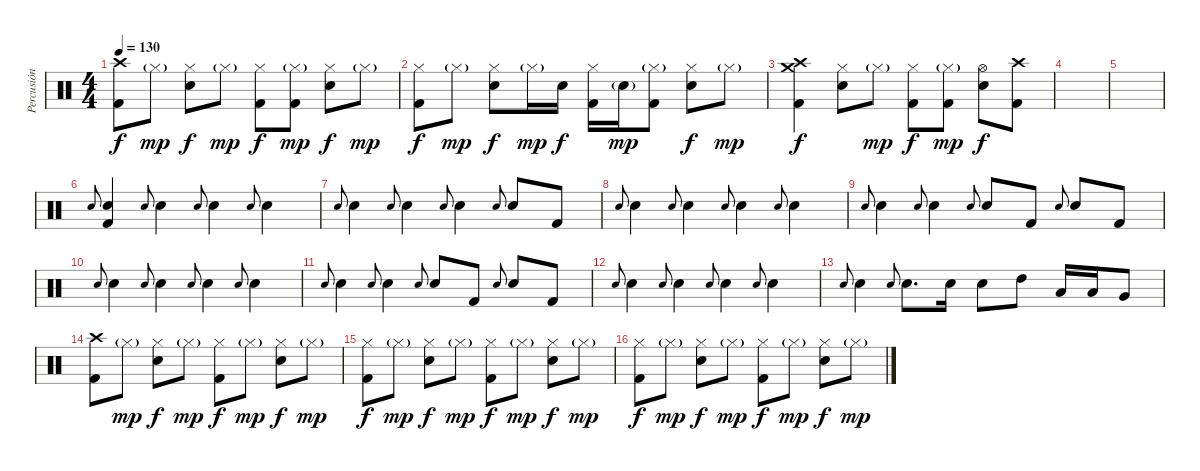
\track ("Percusión" "Percusión") {instrument percussion}
\staff {score}
\articulation defaults
\ts (4 4)
\tempo 130
\clef neutral
\ks c
("Crash high (hit)" "Kick (hit) 2").8{dy f} "Hi-Hat (closed)"{g}.8{dy mp} ("Hi-Hat (closed)" "Snare (hit) 2").8{dy f} "Hi-Hat (closed)"{g}.8{dy mp} ("Hi-Hat (closed)" "Kick (hit) 2").8{dy f} ("Hi-Hat (closed)"{g} "Kick (hit) 2").8{dy mp} ("Hi-Hat (closed)" "Snare (hit) 2").8{dy f} "Hi-Hat (closed)"{g}.8{dy mp} |
("Hi-Hat (closed)" "Kick (hit) 2").8{dy f} "Hi-Hat (closed)"{g}.8{dy mp} ("Hi-Hat (closed)" "Snare (hit) 2").8{dy f} "Hi-Hat (closed)"{g}.16{dy mp} "Snare (hit) 2".16{dy f} ("Hi-Hat (closed)" "Kick (hit) 2").16 "Snare (hit) 2"{g}.16{dy mp} ("Hi-Hat (closed)"{g} "Kick (hit) 2").8 ("Hi-Hat (closed)" "Snare (hit) 2").8{dy f} "Hi-Hat (closed)"{g}.8{dy mp} |
("Crash high (hit)" "Crash medium (hit)" "Kick (hit) 2").4{dy f} ("Hi-Hat (closed)" "Snare (hit) 2").8 "Hi-Hat (closed)"{g}.8{dy mp} ("Hi-Hat (closed)" "Kick (hit) 2").8{dy f} ("Hi-Hat (closed)"{g} "Kick (hit) 2").8{dy mp} ("Hi-Hat (open)" "Snare (hit) 2").8{dy f} ("Crash high (hit)" "Kick (hit) 2").8 |
|
|
"Snare (hit) 2".8{gr onbeat} ("Snare (hit) 2" "Kick (hit) 2").4 "Snare (hit) 2".8{gr onbeat} "Snare (hit) 2".4 "Snare (hit) 2".8{gr onbeat} "Snare (hit) 2".4 "Snare (hit) 2".8{gr onbeat} "Snare (hit) 2".4 |
"Snare (hit) 2".8{gr onbeat} "Snare (hit) 2".4 "Snare (hit) 2".8{gr onbeat} "Snare (hit) 2".4 "Snare (hit) 2".8{gr onbeat} "Snare (hit) 2".4 "Snare (hit) 2".8{gr onbeat} "Snare (hit) 2".8 "Kick (hit) 2".8 |
"Snare (hit) 2".8{gr onbeat} "Snare (hit) 2".4 "Snare (hit) 2".8{gr onbeat} "Snare (hit) 2".4 "Snare (hit) 2".8{gr onbeat} "Snare (hit) 2".4 "Snare (hit) 2".8{gr onbeat} "Snare (hit) 2".4 |
"Snare (hit) 2".8{gr onbeat} "Snare (hit) 2".4 "Snare (hit) 2".8{gr onbeat} "Snare (hit) 2".4 "Snare (hit) 2".8{gr onbeat} "Snare (hit) 2".8 "Kick (hit) 2".8 "Snare (hit) 2".8{gr onbeat} "Snare (hit) 2".8 "Kick (hit) 2".8 |
"Snare (hit) 2".8{gr onbeat} "Snare (hit) 2".4 "Snare (hit) 2".8{gr onbeat} "Snare (hit) 2".4 "Snare (hit) 2".8{gr onbeat} "Snare (hit) 2".4 "Snare (hit) 2".8{gr onbeat} "Snare (hit) 2".4 |
"Snare (hit) 2".8{gr onbeat} "Snare (hit) 2".4 "Snare (hit) 2".8{gr onbeat} "Snare (hit) 2".4 "Snare (hit) 2".8{gr onbeat} "Snare (hit) 2".8 "Kick (hit) 2".8 "Snare (hit) 2".8{gr onbeat} "Snare (hit) 2".8 "Kick (hit) 2".8 |
"Snare (hit) 2".8{gr onbeat} "Snare (hit) 2".4 "Snare (hit) 2".8{gr onbeat} "Snare (hit) 2".4 "Snare (hit) 2".8{gr onbeat} "Snare (hit) 2".4 "Snare (hit) 2".8{gr onbeat} "Snare (hit) 2".4 |
"Snare (hit) 2".8{gr onbeat} "Snare (hit) 2".4 "Snare (hit) 2".8{gr onbeat} "Snare (hit) 2".8{d} "Snare (hit) 2".16 "Snare (hit) 2".8 "High Tom (hit)".8 "Low Tom (hit)".16 "Low Tom (hit)".16 "Very Low Tom (hit)".8 |
("Crash high (hit)" "Kick (hit) 2").8 "Hi-Hat (closed)"{g}.8{dy mp} ("Hi-Hat (closed)" "Snare (hit) 2").8{dy f} "Hi-Hat (closed)"{g}.8{dy mp} ("Hi-Hat (closed)" "Kick (hit) 2").8{dy f} "Hi-Hat (closed)"{g}.8{dy mp} ("Hi-Hat (closed)" "Snare (hit) 2").8{dy f} "Hi-Hat (closed)"{g}.8{dy mp} |
("Hi-Hat (closed)" "Kick (hit) 2").8{dy f} "Hi-Hat (closed)"{g}.8{dy mp} ("Hi-Hat (closed)" "Snare (hit) 2").8{dy f} "Hi-Hat (closed)"{g}.8{dy mp} ("Hi-Hat (closed)" "Kick (hit) 2").8{dy f} "Hi-Hat (closed)"{g}.8{dy mp} ("Hi-Hat (closed)" "Snare (hit) 2").8{dy f} "Hi-Hat (closed)"{g}.8{dy mp} |
("Hi-Hat (closed)" "Kick (hit) 2").8{dy f} "Hi-Hat (closed)"{g}.8{dy mp} ("Hi-Hat (closed)" "Snare (hit) 2").8{dy f} "Hi-Hat (closed)"{g}.8{dy mp} ("Hi-Hat (closed)" "Kick (hit) 2").8{dy f} "Hi-Hat (closed)"{g}.8{dy mp} ("Hi-Hat (closed)" "Snare (hit) 2").8{dy f} "Hi-Hat (closed)"{g}.8{dy mp}
